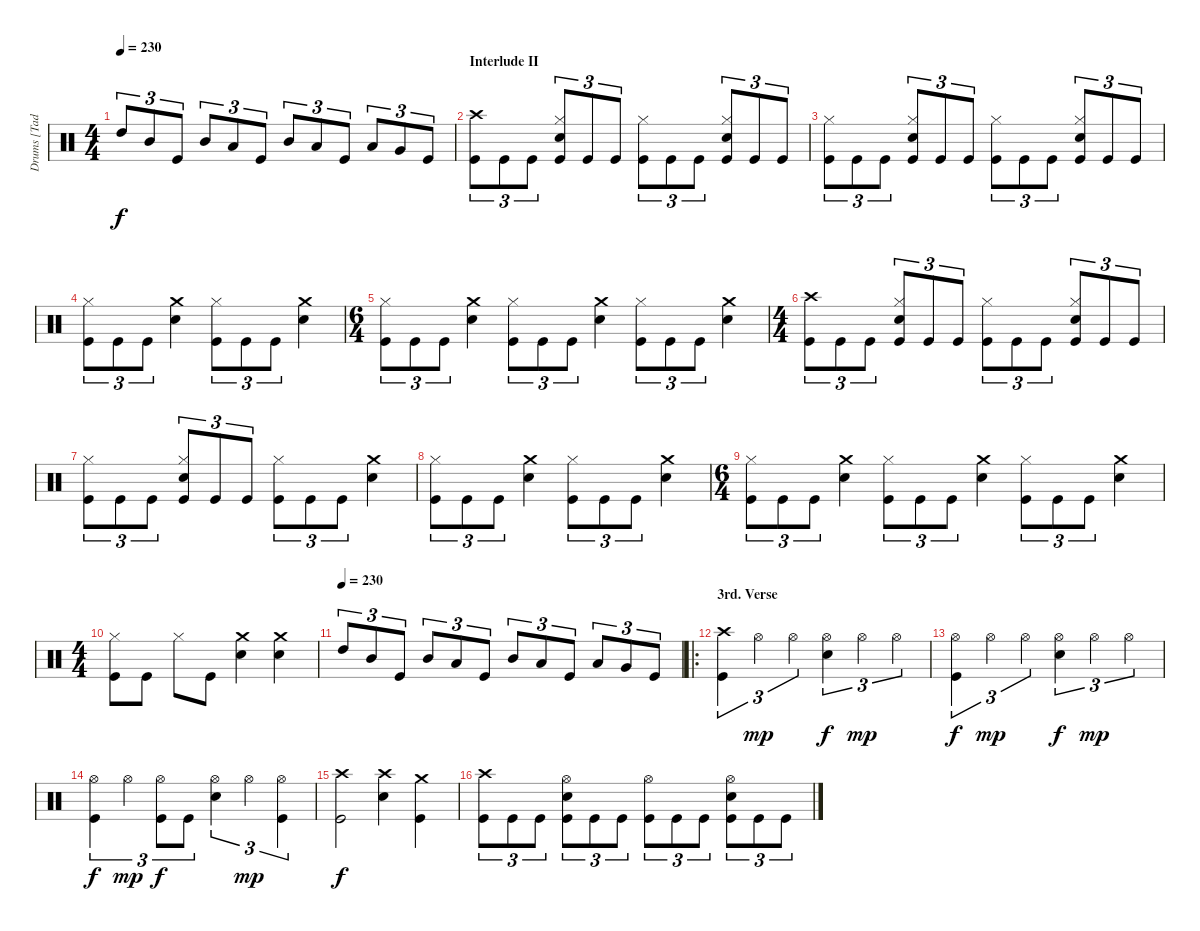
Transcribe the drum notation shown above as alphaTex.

\track ("Drums [Tad Leger]" "Drums [Tad") {instrument percussion}
\staff {score}
\articulation defaults
\ts (4 4)
\tempo 230
\clef neutral
\ks c "High Tom (hit)".8{tu (3 2) dy f} "Mid Tom (hit)".8{tu (3 2)} "Kick (hit)".8{tu (3 2)} "Mid Tom (hit)".8{tu (3 2)} "Low Tom (hit)".8{tu (3 2)} "Kick (hit)".8{tu (3 2)} "Mid Tom (hit)".8{tu (3 2)} "Low Tom (hit)".8{tu (3 2)} "Kick (hit)".8{tu (3 2)} "Low Tom (hit)".8{tu (3 2)} "Very Low Tom (hit)".8{tu (3 2)} "Kick (hit)".8{tu (3 2)}
|
\section ("" "Interlude II")
("Crash high (hit)" "Kick (hit)").8{tu (3 2)} "Kick (hit)".8{tu (3 2)} "Kick (hit)".8{tu (3 2)} ("Hi-Hat (closed)" "Electric Snare (hit)" "Kick (hit)").8{tu (3 2)} "Kick (hit)".8{tu (3 2)} "Kick (hit)".8{tu (3 2)} ("Hi-Hat (closed)" "Kick (hit)").8{tu (3 2)} "Kick (hit)".8{tu (3 2)} "Kick (hit)".8{tu (3 2)} ("Hi-Hat (closed)" "Electric Snare (hit)" "Kick (hit)").8{tu (3 2)} "Kick (hit)".8{tu (3 2)} "Kick (hit)".8{tu (3 2)} |
("Hi-Hat (closed)" "Kick (hit)").8{tu (3 2)} "Kick (hit)".8{tu (3 2)} "Kick (hit)".8{tu (3 2)} ("Hi-Hat (closed)" "Electric Snare (hit)" "Kick (hit)").8{tu (3 2)} "Kick (hit)".8{tu (3 2)} "Kick (hit)".8{tu (3 2)} ("Hi-Hat (closed)" "Kick (hit)").8{tu (3 2)} "Kick (hit)".8{tu (3 2)} "Kick (hit)".8{tu (3 2)} ("Hi-Hat (closed)" "Electric Snare (hit)" "Kick (hit)").8{tu (3 2)} "Kick (hit)".8{tu (3 2)} "Kick (hit)".8{tu (3 2)} |
("Hi-Hat (closed)" "Kick (hit)").8{tu (3 2)} "Kick (hit)".8{tu (3 2)} "Kick (hit)".8{tu (3 2)} ("Crash medium (hit)" "Electric Snare (hit)").4 ("Hi-Hat (closed)" "Kick (hit)").8{tu (3 2)} "Kick (hit)".8{tu (3 2)} "Kick (hit)".8{tu (3 2)} ("Crash medium (hit)" "Electric Snare (hit)").4 |
\ts (6 4)
("Hi-Hat (closed)" "Kick (hit)").8{tu (3 2)} "Kick (hit)".8{tu (3 2)} "Kick (hit)".8{tu (3 2)} ("Crash medium (hit)" "Electric Snare (hit)").4 ("Hi-Hat (closed)" "Kick (hit)").8{tu (3 2)} "Kick (hit)".8{tu (3 2)} "Kick (hit)".8{tu (3 2)} ("Crash medium (hit)" "Electric Snare (hit)").4 ("Hi-Hat (closed)" "Kick (hit)").8{tu (3 2)} "Kick (hit)".8{tu (3 2)} "Kick (hit)".8{tu (3 2)} ("Crash medium (hit)" "Electric Snare (hit)").4 |
\ts (4 4)
("Crash high (hit)" "Kick (hit)").8{tu (3 2)} "Kick (hit)".8{tu (3 2)} "Kick (hit)".8{tu (3 2)} ("Hi-Hat (closed)" "Electric Snare (hit)" "Kick (hit)").8{tu (3 2)} "Kick (hit)".8{tu (3 2)} "Kick (hit)".8{tu (3 2)} ("Hi-Hat (closed)" "Kick (hit)").8{tu (3 2)} "Kick (hit)".8{tu (3 2)} "Kick (hit)".8{tu (3 2)} ("Hi-Hat (closed)" "Electric Snare (hit)" "Kick (hit)").8{tu (3 2)} "Kick (hit)".8{tu (3 2)} "Kick (hit)".8{tu (3 2)} |
("Hi-Hat (closed)" "Kick (hit)").8{tu (3 2)} "Kick (hit)".8{tu (3 2)} "Kick (hit)".8{tu (3 2)} ("Hi-Hat (closed)" "Electric Snare (hit)" "Kick (hit)").8{tu (3 2)} "Kick (hit)".8{tu (3 2)} "Kick (hit)".8{tu (3 2)} ("Hi-Hat (closed)" "Kick (hit)").8{tu (3 2)} "Kick (hit)".8{tu (3 2)} "Kick (hit)".8{tu (3 2)} ("Crash medium (hit)" "Electric Snare (hit)").4 |
("Hi-Hat (closed)" "Kick (hit)").8{tu (3 2)} "Kick (hit)".8{tu (3 2)} "Kick (hit)".8{tu (3 2)} ("Crash medium (hit)" "Electric Snare (hit)").4 ("Hi-Hat (closed)" "Kick (hit)").8{tu (3 2)} "Kick (hit)".8{tu (3 2)} "Kick (hit)".8{tu (3 2)} ("Crash medium (hit)" "Electric Snare (hit)").4 |
\ts (6 4)
("Hi-Hat (closed)" "Kick (hit)").8{tu (3 2)} "Kick (hit)".8{tu (3 2)} "Kick (hit)".8{tu (3 2)} ("Crash medium (hit)" "Electric Snare (hit)").4 ("Hi-Hat (closed)" "Kick (hit)").8{tu (3 2)} "Kick (hit)".8{tu (3 2)} "Kick (hit)".8{tu (3 2)} ("Crash medium (hit)" "Electric Snare (hit)").4 ("Hi-Hat (closed)" "Kick (hit)").8{tu (3 2)} "Kick (hit)".8{tu (3 2)} "Kick (hit)".8{tu (3 2)} ("Crash medium (hit)" "Electric Snare (hit)").4 |
\ts (4 4)
("Hi-Hat (closed)" "Kick (hit)").8 "Kick (hit)".8 "Hi-Hat (closed)".8 "Kick (hit)".8 ("Crash medium (hit)" "Electric Snare (hit)").4 ("Crash medium (hit)" "Electric Snare (hit)").4 |
\tempo (230)
"High Tom (hit)".8{tu (3 2)} "Mid Tom (hit)".8{tu (3 2)} "Kick (hit)".8{tu (3 2)} "Mid Tom (hit)".8{tu (3 2)} "Low Tom (hit)".8{tu (3 2)} "Kick (hit)".8{tu (3 2)} "Mid Tom (hit)".8{tu (3 2)} "Low Tom (hit)".8{tu (3 2)} "Kick (hit)".8{tu (3 2)} "Low Tom (hit)".8{tu (3 2)} "Very Low Tom (hit)".8{tu (3 2)} "Kick (hit)".8{tu (3 2)} |
\ro
\section ("" "3rd. Verse")
("Crash high (hit)" "Kick (hit)").4{tu (3 2)} "Hi-Hat (open)".4{tu (3 2) dy mp} "Hi-Hat (open)".4{tu (3 2)} ("Hi-Hat (open)" "Electric Snare (hit)").4{tu (3 2) dy f} "Hi-Hat (open)".4{tu (3 2) dy mp} "Hi-Hat (open)".4{tu (3 2)} |
("Hi-Hat (open)" "Kick (hit)").4{tu (3 2) dy f} "Hi-Hat (open)".4{tu (3 2) dy mp} "Hi-Hat (open)".4{tu (3 2)} ("Hi-Hat (open)" "Electric Snare (hit)").4{tu (3 2) dy f} "Hi-Hat (open)".4{tu (3 2) dy mp} "Hi-Hat (open)".4{tu (3 2)} |
("Hi-Hat (open)" "Kick (hit)").4{tu (3 2) dy f} "Hi-Hat (open)".4{tu (3 2) dy mp} ("Hi-Hat (open)" "Kick (hit)").8{tu (3 2) dy f} "Kick (hit)".8{tu (3 2)} ("Hi-Hat (open)" "Electric Snare (hit)").4{tu (3 2)} "Hi-Hat (open)".4{tu (3 2) dy mp} ("Hi-Hat (open)" "Kick (hit)").4{tu (3 2)} |
("Crash high (hit)" "Kick (hit)").2{dy f} ("Crash high (hit)" "Electric Snare (hit)").4 ("Crash medium (hit)" "Kick (hit)").4 |
("Crash high (hit)" "Kick (hit)").8{tu (3 2)} "Kick (hit)".8{tu (3 2)} "Kick (hit)".8{tu (3 2)} ("Hi-Hat (open)" "Electric Snare (hit)" "Kick (hit)").8{tu (3 2)} "Kick (hit)".8{tu (3 2)} "Kick (hit)".8{tu (3 2)} ("Hi-Hat (open)" "Kick (hit)").8{tu (3 2)} "Kick (hit)".8{tu (3 2)} "Kick (hit)".8{tu (3 2)} ("Hi-Hat (open)" "Electric Snare (hit)" "Kick (hit)").8{tu (3 2)} "Kick (hit)".8{tu (3 2)} "Kick (hit)".8{tu (3 2)}
